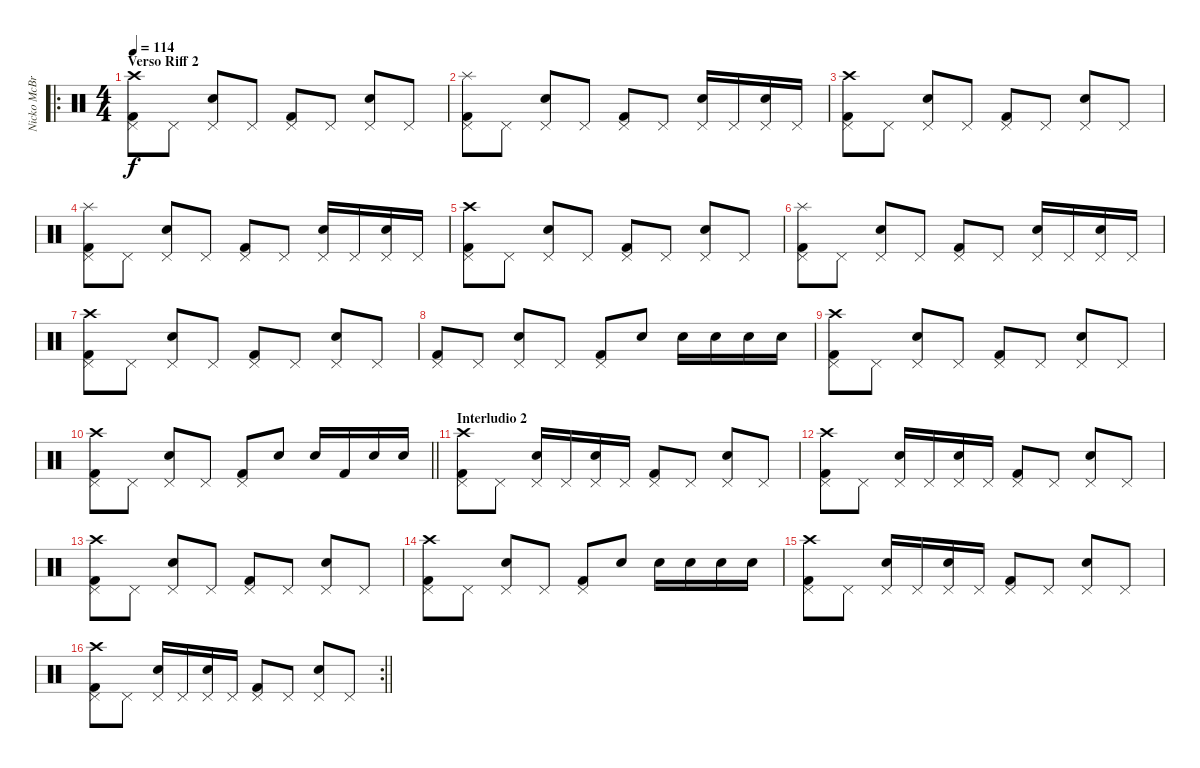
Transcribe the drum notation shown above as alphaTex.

\track ("Nicko McBrain" "Nicko McBr") {instrument percussion}
\staff {score}
\articulation defaults
\ro
\ts (4 4)
\section ("" "Verso Riff 2")
\tempo 114
\clef neutral
\ks c
("Kick (hit) 2" "Pedal Hi-Hat (hit)" "Crash high (hit)").8{dy f} "Pedal Hi-Hat (hit)".8 ("Snare (hit) 2" "Pedal Hi-Hat (hit)").8 "Pedal Hi-Hat (hit)".8 ("Kick (hit) 2" "Pedal Hi-Hat (hit)").8 "Pedal Hi-Hat (hit)".8 ("Snare (hit) 2" "Pedal Hi-Hat (hit)").8 "Pedal Hi-Hat (hit)".8 |
("Kick (hit) 2" "Pedal Hi-Hat (hit)" "Splash (hit)").8 "Pedal Hi-Hat (hit)".8 ("Snare (hit) 2" "Pedal Hi-Hat (hit)").8 "Pedal Hi-Hat (hit)".8 ("Kick (hit) 2" "Pedal Hi-Hat (hit)").8 "Pedal Hi-Hat (hit)".8 ("Snare (hit) 2" "Pedal Hi-Hat (hit)").16 "Pedal Hi-Hat (hit)".16 ("Snare (hit) 2" "Pedal Hi-Hat (hit)").16 "Pedal Hi-Hat (hit)".16 |
("Kick (hit) 2" "Pedal Hi-Hat (hit)" "Crash high (hit)").8 "Pedal Hi-Hat (hit)".8 ("Snare (hit) 2" "Pedal Hi-Hat (hit)").8 "Pedal Hi-Hat (hit)".8 ("Kick (hit) 2" "Pedal Hi-Hat (hit)").8 "Pedal Hi-Hat (hit)".8 ("Snare (hit) 2" "Pedal Hi-Hat (hit)").8 "Pedal Hi-Hat (hit)".8 |
("Kick (hit) 2" "Pedal Hi-Hat (hit)" "Splash (hit)").8 "Pedal Hi-Hat (hit)".8 ("Snare (hit) 2" "Pedal Hi-Hat (hit)").8 "Pedal Hi-Hat (hit)".8 ("Kick (hit) 2" "Pedal Hi-Hat (hit)").8 "Pedal Hi-Hat (hit)".8 ("Snare (hit) 2" "Pedal Hi-Hat (hit)").16 "Pedal Hi-Hat (hit)".16 ("Snare (hit) 2" "Pedal Hi-Hat (hit)").16 "Pedal Hi-Hat (hit)".16 |
("Kick (hit) 2" "Pedal Hi-Hat (hit)" "Crash high (hit)").8 "Pedal Hi-Hat (hit)".8 ("Snare (hit) 2" "Pedal Hi-Hat (hit)").8 "Pedal Hi-Hat (hit)".8 ("Kick (hit) 2" "Pedal Hi-Hat (hit)").8 "Pedal Hi-Hat (hit)".8 ("Snare (hit) 2" "Pedal Hi-Hat (hit)").8 "Pedal Hi-Hat (hit)".8 |
("Kick (hit) 2" "Pedal Hi-Hat (hit)" "Splash (hit)").8 "Pedal Hi-Hat (hit)".8 ("Snare (hit) 2" "Pedal Hi-Hat (hit)").8 "Pedal Hi-Hat (hit)".8 ("Kick (hit) 2" "Pedal Hi-Hat (hit)").8 "Pedal Hi-Hat (hit)".8 ("Snare (hit) 2" "Pedal Hi-Hat (hit)").16 "Pedal Hi-Hat (hit)".16 ("Snare (hit) 2" "Pedal Hi-Hat (hit)").16 "Pedal Hi-Hat (hit)".16 |
("Kick (hit) 2" "Pedal Hi-Hat (hit)" "Crash high (hit)").8 "Pedal Hi-Hat (hit)".8 ("Snare (hit) 2" "Pedal Hi-Hat (hit)").8 "Pedal Hi-Hat (hit)".8 ("Kick (hit) 2" "Pedal Hi-Hat (hit)").8 "Pedal Hi-Hat (hit)".8 ("Snare (hit) 2" "Pedal Hi-Hat (hit)").8 "Pedal Hi-Hat (hit)".8 |
("Kick (hit) 2" "Pedal Hi-Hat (hit)").8 "Pedal Hi-Hat (hit)".8 ("Snare (hit) 2" "Pedal Hi-Hat (hit)").8 "Pedal Hi-Hat (hit)".8 ("Kick (hit) 2" "Pedal Hi-Hat (hit)").8 "Snare (hit) 2".8 "Snare (hit) 2".16 "Snare (hit) 2".16 "Snare (hit) 2".16 "Snare (hit) 2".16 |
("Kick (hit) 2" "Pedal Hi-Hat (hit)" "Crash high (hit)").8 "Pedal Hi-Hat (hit)".8 ("Snare (hit) 2" "Pedal Hi-Hat (hit)").8 "Pedal Hi-Hat (hit)".8 ("Kick (hit) 2" "Pedal Hi-Hat (hit)").8 "Pedal Hi-Hat (hit)".8 ("Snare (hit) 2" "Pedal Hi-Hat (hit)").8 "Pedal Hi-Hat (hit)".8 |
\barLineRight lightlight
("Kick (hit) 2" "Pedal Hi-Hat (hit)" "Crash high (hit)").8 "Pedal Hi-Hat (hit)".8 ("Snare (hit) 2" "Pedal Hi-Hat (hit)").8 "Pedal Hi-Hat (hit)".8 ("Kick (hit) 2" "Pedal Hi-Hat (hit)").8 "Snare (hit) 2".8 "Snare (hit) 2".16 "Kick (hit) 2".16 "Snare (hit) 2".16 "Snare (hit) 2".16 |
\section ("" "Interludio 2")
("Kick (hit) 2" "Pedal Hi-Hat (hit)" "Crash high (hit)").8 "Pedal Hi-Hat (hit)".8 ("Snare (hit) 2" "Pedal Hi-Hat (hit)").16 "Pedal Hi-Hat (hit)".16 ("Snare (hit) 2" "Pedal Hi-Hat (hit)").16 "Pedal Hi-Hat (hit)".16 ("Kick (hit) 2" "Pedal Hi-Hat (hit)").8 "Pedal Hi-Hat (hit)".8 ("Snare (hit) 2" "Pedal Hi-Hat (hit)").8 "Pedal Hi-Hat (hit)".8 |
("Kick (hit) 2" "Pedal Hi-Hat (hit)" "Crash high (hit)").8 "Pedal Hi-Hat (hit)".8 ("Snare (hit) 2" "Pedal Hi-Hat (hit)").16 "Pedal Hi-Hat (hit)".16 ("Snare (hit) 2" "Pedal Hi-Hat (hit)").16 "Pedal Hi-Hat (hit)".16 ("Kick (hit) 2" "Pedal Hi-Hat (hit)").8 "Pedal Hi-Hat (hit)".8 ("Snare (hit) 2" "Pedal Hi-Hat (hit)").8 "Pedal Hi-Hat (hit)".8 |
("Kick (hit) 2" "Pedal Hi-Hat (hit)" "Crash high (hit)").8 "Pedal Hi-Hat (hit)".8 ("Snare (hit) 2" "Pedal Hi-Hat (hit)").8 "Pedal Hi-Hat (hit)".8 ("Kick (hit) 2" "Pedal Hi-Hat (hit)").8 "Pedal Hi-Hat (hit)".8 ("Snare (hit) 2" "Pedal Hi-Hat (hit)").8 "Pedal Hi-Hat (hit)".8 |
("Kick (hit) 2" "Pedal Hi-Hat (hit)" "Crash high (hit)").8 "Pedal Hi-Hat (hit)".8 ("Snare (hit) 2" "Pedal Hi-Hat (hit)").8 "Pedal Hi-Hat (hit)".8 ("Kick (hit) 2" "Pedal Hi-Hat (hit)").8 "Snare (hit) 2".8 "Snare (hit) 2".16 "Snare (hit) 2".16 "Snare (hit) 2".16 "Snare (hit) 2".16 |
("Kick (hit) 2" "Pedal Hi-Hat (hit)" "Crash high (hit)").8 "Pedal Hi-Hat (hit)".8 ("Snare (hit) 2" "Pedal Hi-Hat (hit)").16 "Pedal Hi-Hat (hit)".16 ("Snare (hit) 2" "Pedal Hi-Hat (hit)").16 "Pedal Hi-Hat (hit)".16 ("Kick (hit) 2" "Pedal Hi-Hat (hit)").8 "Pedal Hi-Hat (hit)".8 ("Snare (hit) 2" "Pedal Hi-Hat (hit)").8 "Pedal Hi-Hat (hit)".8 |
\rc 2
\barLineRight lightlight
("Kick (hit) 2" "Pedal Hi-Hat (hit)" "Crash high (hit)").8 "Pedal Hi-Hat (hit)".8 ("Snare (hit) 2" "Pedal Hi-Hat (hit)").16 "Pedal Hi-Hat (hit)".16 ("Snare (hit) 2" "Pedal Hi-Hat (hit)").16 "Pedal Hi-Hat (hit)".16 ("Kick (hit) 2" "Pedal Hi-Hat (hit)").8 "Pedal Hi-Hat (hit)".8 ("Snare (hit) 2" "Pedal Hi-Hat (hit)").8 "Pedal Hi-Hat (hit)".8
